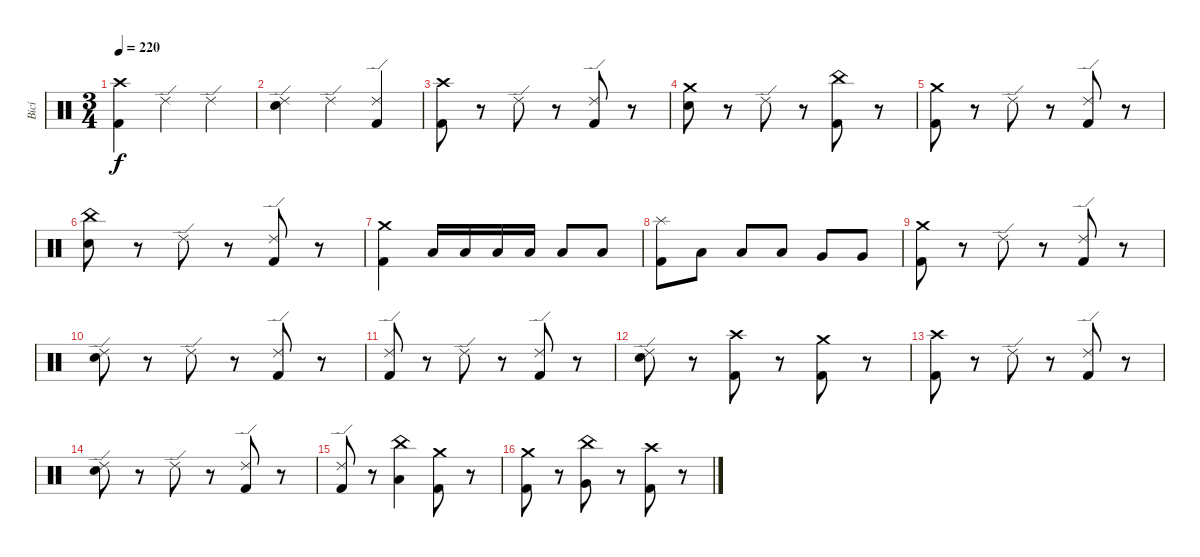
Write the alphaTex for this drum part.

\track ("Bicí" "Bicí") {instrument percussion}
\staff {score}
\articulation defaults
\ts (3 4)
\tempo 220
\clef neutral
\ks c
("Crash high (hit)" "Kick (hit) 2").4{dy f} "Ride (edge) 2".4 "Ride (edge) 2".4 |
("Ride (edge) 2" "Electric Snare (hit)").4 "Ride (edge) 2".4 ("Ride (edge) 2" "Kick (hit) 2").4 |
("Crash high (hit)" "Kick (hit) 2").8 r.8 "Ride (edge) 2".8 r.8 ("Ride (edge) 2" "Kick (hit) 2").8 r.8 |
("Crash medium (hit)" "Electric Snare (hit)").8 r.8 "Ride (edge) 2".8 r.8 ("China (hit)" "Kick (hit) 2").8 r.8 |
("Crash medium (hit)" "Kick (hit) 2").8 r.8 "Ride (edge) 2".8 r.8 ("Ride (edge) 2" "Kick (hit) 2").8 r.8 |
("China (hit)" "Electric Snare (hit)").8 r.8 "Ride (edge) 2".8 r.8 ("Ride (edge) 2" "Kick (hit) 2").8 r.8 |
("Crash medium (hit)" "Kick (hit) 2").4 "Low Tom (hit)".16 "Low Tom (hit)".16 "Low Tom (hit)".16 "Low Tom (hit)".16 "Low Tom (hit)".8 "Low Tom (hit)".8 |
("Splash (hit)" "Kick (hit) 2").8 "Low Tom (hit)".8 "Low Tom (hit)".8 "Low Tom (hit)".8 "Very Low Tom (hit)".8 "Very Low Tom (hit)".8 |
("Crash medium (hit)" "Kick (hit) 2").8 r.8 "Ride (edge) 2".8 r.8 ("Ride (edge) 2" "Kick (hit) 2").8 r.8 |
("Ride (edge) 2" "Electric Snare (hit)").8 r.8 "Ride (edge) 2".8 r.8 ("Ride (edge) 2" "Kick (hit) 2").8 r.8 |
("Ride (edge) 2" "Kick (hit) 2").8 r.8 "Ride (edge) 2".8 r.8 ("Ride (edge) 2" "Kick (hit) 2").8 r.8 |
("Ride (edge) 2" "Electric Snare (hit)").8 r.8 ("Crash high (hit)" "Kick (hit) 2").8 r.8 ("Crash medium (hit)" "Kick (hit) 2").8 r.8 |
("Crash high (hit)" "Kick (hit) 2").8 r.8 "Ride (edge) 2".8 r.8 ("Ride (edge) 2" "Kick (hit) 2").8 r.8 |
("Ride (edge) 2" "Electric Snare (hit)").8 r.8 "Ride (edge) 2".8 r.8 ("Ride (edge) 2" "Kick (hit) 2").8 r.8 |
("Ride (edge) 2" "Kick (hit) 2").8 r.8 ("China (hit)" "Low Tom (hit)").4 ("Crash medium (hit)" "Kick (hit) 2").8 r.8 |
("Crash medium (hit)" "Kick (hit) 2").8 r.8 ("China (hit)" "Very Low Tom (hit)").8 r.8 ("Crash high (hit)" "Kick (hit) 2").8 r.8
